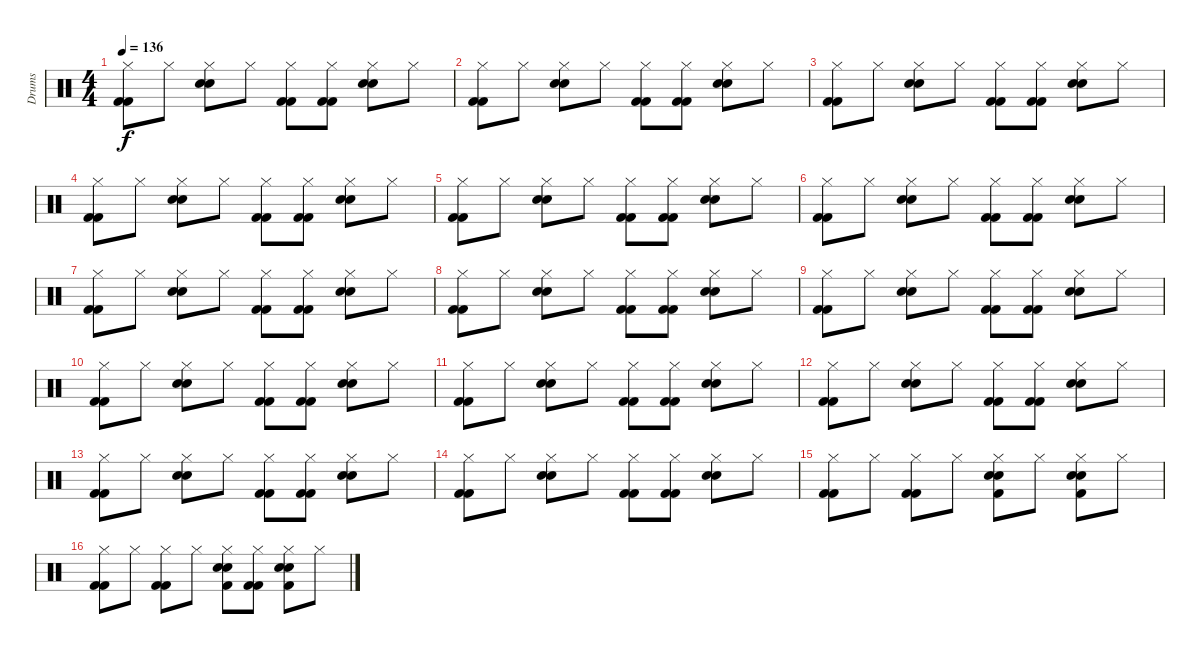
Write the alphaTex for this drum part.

\track ("Drums" "Drums") {instrument percussion}
\staff {score}
\articulation defaults
\ts (4 4)
\tempo 136
\clef neutral
\ks c
("Kick (hit) 2" "Kick (hit) 2" "Hi-Hat (closed)").8{dy f} "Hi-Hat (closed)".8 ("Electric Snare (hit)" "Electric Snare (hit)" "Hi-Hat (closed)").8 "Hi-Hat (closed)".8 ("Kick (hit) 2" "Kick (hit) 2" "Hi-Hat (closed)").8 ("Kick (hit) 2" "Kick (hit) 2" "Hi-Hat (closed)").8 ("Electric Snare (hit)" "Electric Snare (hit)" "Hi-Hat (closed)").8 "Hi-Hat (closed)".8 |
("Kick (hit) 2" "Kick (hit) 2" "Hi-Hat (closed)").8 "Hi-Hat (closed)".8 ("Electric Snare (hit)" "Electric Snare (hit)" "Hi-Hat (closed)").8 "Hi-Hat (closed)".8 ("Kick (hit) 2" "Kick (hit) 2" "Hi-Hat (closed)").8 ("Kick (hit) 2" "Kick (hit) 2" "Hi-Hat (closed)").8 ("Electric Snare (hit)" "Electric Snare (hit)" "Hi-Hat (closed)").8 "Hi-Hat (closed)".8 |
("Kick (hit) 2" "Kick (hit) 2" "Hi-Hat (closed)").8 "Hi-Hat (closed)".8 ("Electric Snare (hit)" "Electric Snare (hit)" "Hi-Hat (closed)").8 "Hi-Hat (closed)".8 ("Kick (hit) 2" "Kick (hit) 2" "Hi-Hat (closed)").8 ("Kick (hit) 2" "Kick (hit) 2" "Hi-Hat (closed)").8 ("Electric Snare (hit)" "Electric Snare (hit)" "Hi-Hat (closed)").8 "Hi-Hat (closed)".8 |
("Kick (hit) 2" "Kick (hit) 2" "Hi-Hat (closed)").8 "Hi-Hat (closed)".8 ("Electric Snare (hit)" "Electric Snare (hit)" "Hi-Hat (closed)").8 "Hi-Hat (closed)".8 ("Kick (hit) 2" "Kick (hit) 2" "Hi-Hat (closed)").8 ("Kick (hit) 2" "Kick (hit) 2" "Hi-Hat (closed)").8 ("Electric Snare (hit)" "Electric Snare (hit)" "Hi-Hat (closed)").8 "Hi-Hat (closed)".8 |
("Kick (hit) 2" "Kick (hit) 2" "Hi-Hat (closed)").8 "Hi-Hat (closed)".8 ("Electric Snare (hit)" "Electric Snare (hit)" "Hi-Hat (closed)").8 "Hi-Hat (closed)".8 ("Kick (hit) 2" "Kick (hit) 2" "Hi-Hat (closed)").8 ("Kick (hit) 2" "Kick (hit) 2" "Hi-Hat (closed)").8 ("Electric Snare (hit)" "Electric Snare (hit)" "Hi-Hat (closed)").8 "Hi-Hat (closed)".8 |
("Kick (hit) 2" "Kick (hit) 2" "Hi-Hat (closed)").8 "Hi-Hat (closed)".8 ("Electric Snare (hit)" "Electric Snare (hit)" "Hi-Hat (closed)").8 "Hi-Hat (closed)".8 ("Kick (hit) 2" "Kick (hit) 2" "Hi-Hat (closed)").8 ("Kick (hit) 2" "Kick (hit) 2" "Hi-Hat (closed)").8 ("Electric Snare (hit)" "Electric Snare (hit)" "Hi-Hat (closed)").8 "Hi-Hat (closed)".8 |
("Kick (hit) 2" "Kick (hit) 2" "Hi-Hat (closed)").8 "Hi-Hat (closed)".8 ("Electric Snare (hit)" "Electric Snare (hit)" "Hi-Hat (closed)").8 "Hi-Hat (closed)".8 ("Kick (hit) 2" "Kick (hit) 2" "Hi-Hat (closed)").8 ("Kick (hit) 2" "Kick (hit) 2" "Hi-Hat (closed)").8 ("Electric Snare (hit)" "Electric Snare (hit)" "Hi-Hat (closed)").8 "Hi-Hat (closed)".8 |
("Kick (hit) 2" "Kick (hit) 2" "Hi-Hat (closed)").8 "Hi-Hat (closed)".8 ("Electric Snare (hit)" "Electric Snare (hit)" "Hi-Hat (closed)").8 "Hi-Hat (closed)".8 ("Kick (hit) 2" "Kick (hit) 2" "Hi-Hat (closed)").8 ("Kick (hit) 2" "Kick (hit) 2" "Hi-Hat (closed)").8 ("Electric Snare (hit)" "Electric Snare (hit)" "Hi-Hat (closed)").8 "Hi-Hat (closed)".8 |
("Kick (hit) 2" "Kick (hit) 2" "Hi-Hat (closed)").8 "Hi-Hat (closed)".8 ("Electric Snare (hit)" "Electric Snare (hit)" "Hi-Hat (closed)").8 "Hi-Hat (closed)".8 ("Kick (hit) 2" "Kick (hit) 2" "Hi-Hat (closed)").8 ("Kick (hit) 2" "Kick (hit) 2" "Hi-Hat (closed)").8 ("Electric Snare (hit)" "Electric Snare (hit)" "Hi-Hat (closed)").8 "Hi-Hat (closed)".8 |
("Kick (hit) 2" "Kick (hit) 2" "Hi-Hat (closed)").8 "Hi-Hat (closed)".8 ("Electric Snare (hit)" "Electric Snare (hit)" "Hi-Hat (closed)").8 "Hi-Hat (closed)".8 ("Kick (hit) 2" "Kick (hit) 2" "Hi-Hat (closed)").8 ("Kick (hit) 2" "Kick (hit) 2" "Hi-Hat (closed)").8 ("Electric Snare (hit)" "Electric Snare (hit)" "Hi-Hat (closed)").8 "Hi-Hat (closed)".8 |
("Kick (hit) 2" "Kick (hit) 2" "Hi-Hat (closed)").8 "Hi-Hat (closed)".8 ("Electric Snare (hit)" "Electric Snare (hit)" "Hi-Hat (closed)").8 "Hi-Hat (closed)".8 ("Kick (hit) 2" "Kick (hit) 2" "Hi-Hat (closed)").8 ("Kick (hit) 2" "Kick (hit) 2" "Hi-Hat (closed)").8 ("Electric Snare (hit)" "Electric Snare (hit)" "Hi-Hat (closed)").8 "Hi-Hat (closed)".8 |
("Kick (hit) 2" "Kick (hit) 2" "Hi-Hat (closed)").8 "Hi-Hat (closed)".8 ("Electric Snare (hit)" "Electric Snare (hit)" "Hi-Hat (closed)").8 "Hi-Hat (closed)".8 ("Kick (hit) 2" "Kick (hit) 2" "Hi-Hat (closed)").8 ("Kick (hit) 2" "Kick (hit) 2" "Hi-Hat (closed)").8 ("Electric Snare (hit)" "Electric Snare (hit)" "Hi-Hat (closed)").8 "Hi-Hat (closed)".8 |
("Kick (hit) 2" "Kick (hit) 2" "Hi-Hat (closed)").8 "Hi-Hat (closed)".8 ("Electric Snare (hit)" "Electric Snare (hit)" "Hi-Hat (closed)").8 "Hi-Hat (closed)".8 ("Kick (hit) 2" "Kick (hit) 2" "Hi-Hat (closed)").8 ("Kick (hit) 2" "Kick (hit) 2" "Hi-Hat (closed)").8 ("Electric Snare (hit)" "Electric Snare (hit)" "Hi-Hat (closed)").8 "Hi-Hat (closed)".8 |
("Kick (hit) 2" "Kick (hit) 2" "Hi-Hat (closed)").8 "Hi-Hat (closed)".8 ("Electric Snare (hit)" "Electric Snare (hit)" "Hi-Hat (closed)").8 "Hi-Hat (closed)".8 ("Kick (hit) 2" "Kick (hit) 2" "Hi-Hat (closed)").8 ("Kick (hit) 2" "Kick (hit) 2" "Hi-Hat (closed)").8 ("Electric Snare (hit)" "Electric Snare (hit)" "Hi-Hat (closed)").8 "Hi-Hat (closed)".8 |
("Kick (hit) 2" "Kick (hit) 2" "Hi-Hat (closed)").8 "Hi-Hat (closed)".8 ("Kick (hit) 2" "Kick (hit) 2" "Hi-Hat (closed)").8 "Hi-Hat (closed)".8 ("Electric Snare (hit)" "Electric Snare (hit)" "Hi-Hat (closed)" "Kick (hit) 2").8 "Hi-Hat (closed)".8 ("Electric Snare (hit)" "Electric Snare (hit)" "Hi-Hat (closed)" "Kick (hit) 2").8 "Hi-Hat (closed)".8 |
("Kick (hit) 2" "Kick (hit) 2" "Hi-Hat (closed)").8 "Hi-Hat (closed)".8 ("Kick (hit) 2" "Kick (hit) 2" "Hi-Hat (closed)").8 "Hi-Hat (closed)".8 ("Electric Snare (hit)" "Electric Snare (hit)" "Hi-Hat (closed)" "Kick (hit) 2").8 ("Kick (hit) 2" "Kick (hit) 2" "Hi-Hat (closed)").8 ("Electric Snare (hit)" "Electric Snare (hit)" "Hi-Hat (closed)" "Kick (hit) 2").8 "Hi-Hat (closed)".8
